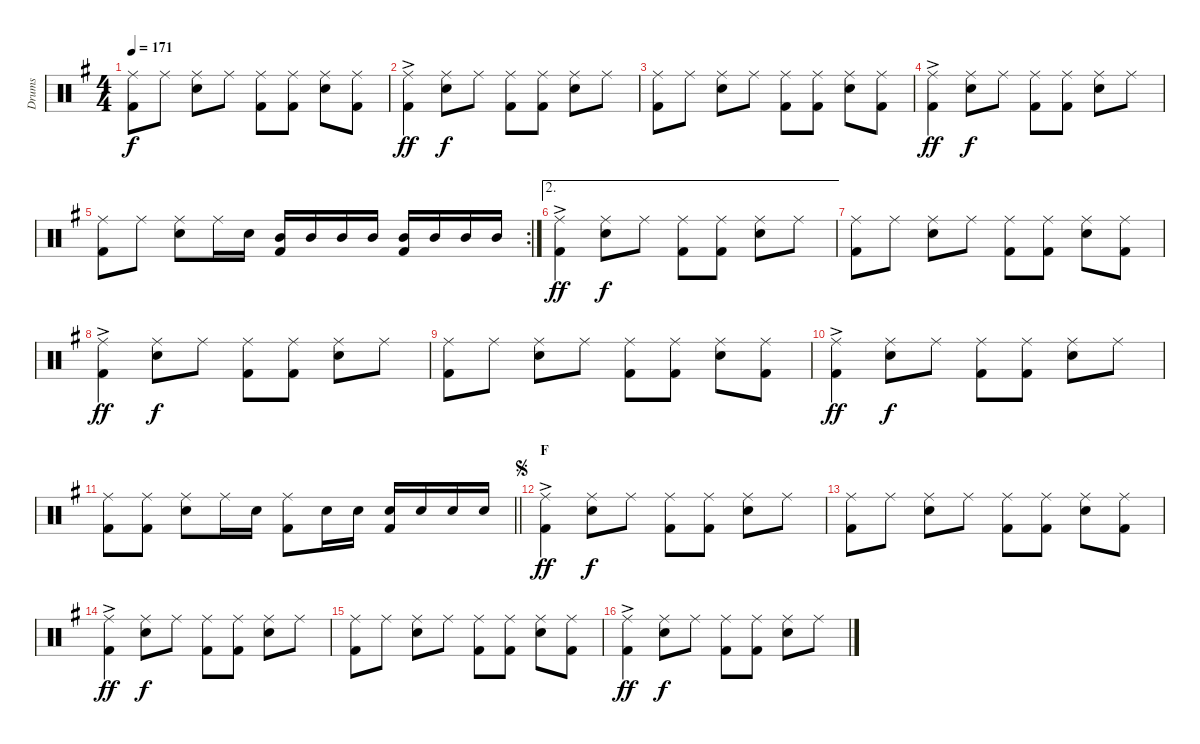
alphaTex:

\track ("Drums" "Drums") {instrument percussion}
\staff {score}
\articulation defaults
\ts (4 4)
\tempo 171
\clef neutral
\ks g
("Ride (middle)" "Kick (hit) 2").8{dy f} "Ride (middle)".8 ("Ride (middle)" "Snare (hit) 2").8 "Ride (middle)".8 ("Ride (middle)" "Kick (hit) 2").8 ("Ride (middle)" "Kick (hit) 2").8 ("Ride (middle)" "Snare (hit) 2").8 ("Ride (middle)" "Kick (hit) 2").8 |
("Ride (middle)"{ac} "Kick (hit) 2").4{dy ff} ("Ride (middle)" "Snare (hit) 2").8{dy f} "Ride (middle)".8 ("Ride (middle)" "Kick (hit) 2").8 ("Ride (middle)" "Kick (hit) 2").8 ("Ride (middle)" "Snare (hit) 2").8 "Ride (middle)".8 |
("Ride (middle)" "Kick (hit) 2").8 "Ride (middle)".8 ("Ride (middle)" "Snare (hit) 2").8 "Ride (middle)".8 ("Ride (middle)" "Kick (hit) 2").8 ("Ride (middle)" "Kick (hit) 2").8 ("Ride (middle)" "Snare (hit) 2").8 ("Ride (middle)" "Kick (hit) 2").8 |
("Ride (middle)"{ac} "Kick (hit) 2").4{dy ff} ("Ride (middle)" "Snare (hit) 2").8{dy f} "Ride (middle)".8 ("Ride (middle)" "Kick (hit) 2").8 ("Ride (middle)" "Kick (hit) 2").8 ("Ride (middle)" "Snare (hit) 2").8 "Ride (middle)".8 |
\rc 2
("Ride (middle)" "Kick (hit) 2").8 "Ride (middle)".8 ("Ride (middle)" "Snare (hit) 2").8 "Ride (middle)".16 "Snare (hit) 2".16 ("Mid Tom (hit)" "Kick (hit) 2").16 "Mid Tom (hit)".16 "Mid Tom (hit)".16 "Mid Tom (hit)".16 ("Mid Tom (hit)" "Kick (hit) 2").16 "Mid Tom (hit)".16 "Mid Tom (hit)".16 "Mid Tom (hit)".16 |
\ae 2
("Ride (middle)"{ac} "Kick (hit) 2").4{dy ff} ("Ride (middle)" "Snare (hit) 2").8{dy f} "Ride (middle)".8 ("Ride (middle)" "Kick (hit) 2").8 ("Ride (middle)" "Kick (hit) 2").8 ("Ride (middle)" "Snare (hit) 2").8 "Ride (middle)".8 |
("Ride (middle)" "Kick (hit) 2").8 "Ride (middle)".8 ("Ride (middle)" "Snare (hit) 2").8 "Ride (middle)".8 ("Ride (middle)" "Kick (hit) 2").8 ("Ride (middle)" "Kick (hit) 2").8 ("Ride (middle)" "Snare (hit) 2").8 ("Ride (middle)" "Kick (hit) 2").8 |
("Ride (middle)"{ac} "Kick (hit) 2").4{dy ff} ("Ride (middle)" "Snare (hit) 2").8{dy f} "Ride (middle)".8 ("Ride (middle)" "Kick (hit) 2").8 ("Ride (middle)" "Kick (hit) 2").8 ("Ride (middle)" "Snare (hit) 2").8 "Ride (middle)".8 |
("Ride (middle)" "Kick (hit) 2").8 "Ride (middle)".8 ("Ride (middle)" "Snare (hit) 2").8 "Ride (middle)".8 ("Ride (middle)" "Kick (hit) 2").8 ("Ride (middle)" "Kick (hit) 2").8 ("Ride (middle)" "Snare (hit) 2").8 ("Ride (middle)" "Kick (hit) 2").8 |
("Ride (middle)"{ac} "Kick (hit) 2").4{dy ff} ("Ride (middle)" "Snare (hit) 2").8{dy f} "Ride (middle)".8 ("Ride (middle)" "Kick (hit) 2").8 ("Ride (middle)" "Kick (hit) 2").8 ("Ride (middle)" "Snare (hit) 2").8 "Ride (middle)".8 |
\barLineRight lightlight
("Ride (middle)" "Kick (hit) 2").8 ("Ride (middle)" "Kick (hit) 2").8 ("Ride (middle)" "Snare (hit) 2").8 "Ride (middle)".16 "Snare (hit) 2".16 ("Ride (middle)" "Kick (hit) 2").8 "Snare (hit) 2".16 "Snare (hit) 2".16 ("Snare (hit) 2" "Kick (hit) 2").16 "Snare (hit) 2".16 "Snare (hit) 2".16 "Snare (hit) 2".16 |
\section ("" "F")
\jump segno
("Ride (middle)"{ac} "Kick (hit) 2").4{dy ff} ("Ride (middle)" "Snare (hit) 2").8{dy f} "Ride (middle)".8 ("Ride (middle)" "Kick (hit) 2").8 ("Ride (middle)" "Kick (hit) 2").8 ("Ride (middle)" "Snare (hit) 2").8 "Ride (middle)".8 |
("Ride (middle)" "Kick (hit) 2").8 "Ride (middle)".8 ("Ride (middle)" "Snare (hit) 2").8 "Ride (middle)".8 ("Ride (middle)" "Kick (hit) 2").8 ("Ride (middle)" "Kick (hit) 2").8 ("Ride (middle)" "Snare (hit) 2").8 ("Ride (middle)" "Kick (hit) 2").8 |
("Ride (middle)"{ac} "Kick (hit) 2").4{dy ff} ("Ride (middle)" "Snare (hit) 2").8{dy f} "Ride (middle)".8 ("Ride (middle)" "Kick (hit) 2").8 ("Ride (middle)" "Kick (hit) 2").8 ("Ride (middle)" "Snare (hit) 2").8 "Ride (middle)".8 |
("Ride (middle)" "Kick (hit) 2").8 "Ride (middle)".8 ("Ride (middle)" "Snare (hit) 2").8 "Ride (middle)".8 ("Ride (middle)" "Kick (hit) 2").8 ("Ride (middle)" "Kick (hit) 2").8 ("Ride (middle)" "Snare (hit) 2").8 ("Ride (middle)" "Kick (hit) 2").8 |
("Ride (middle)"{ac} "Kick (hit) 2").4{dy ff} ("Ride (middle)" "Snare (hit) 2").8{dy f} "Ride (middle)".8 ("Ride (middle)" "Kick (hit) 2").8 ("Ride (middle)" "Kick (hit) 2").8 ("Ride (middle)" "Snare (hit) 2").8 "Ride (middle)".8
